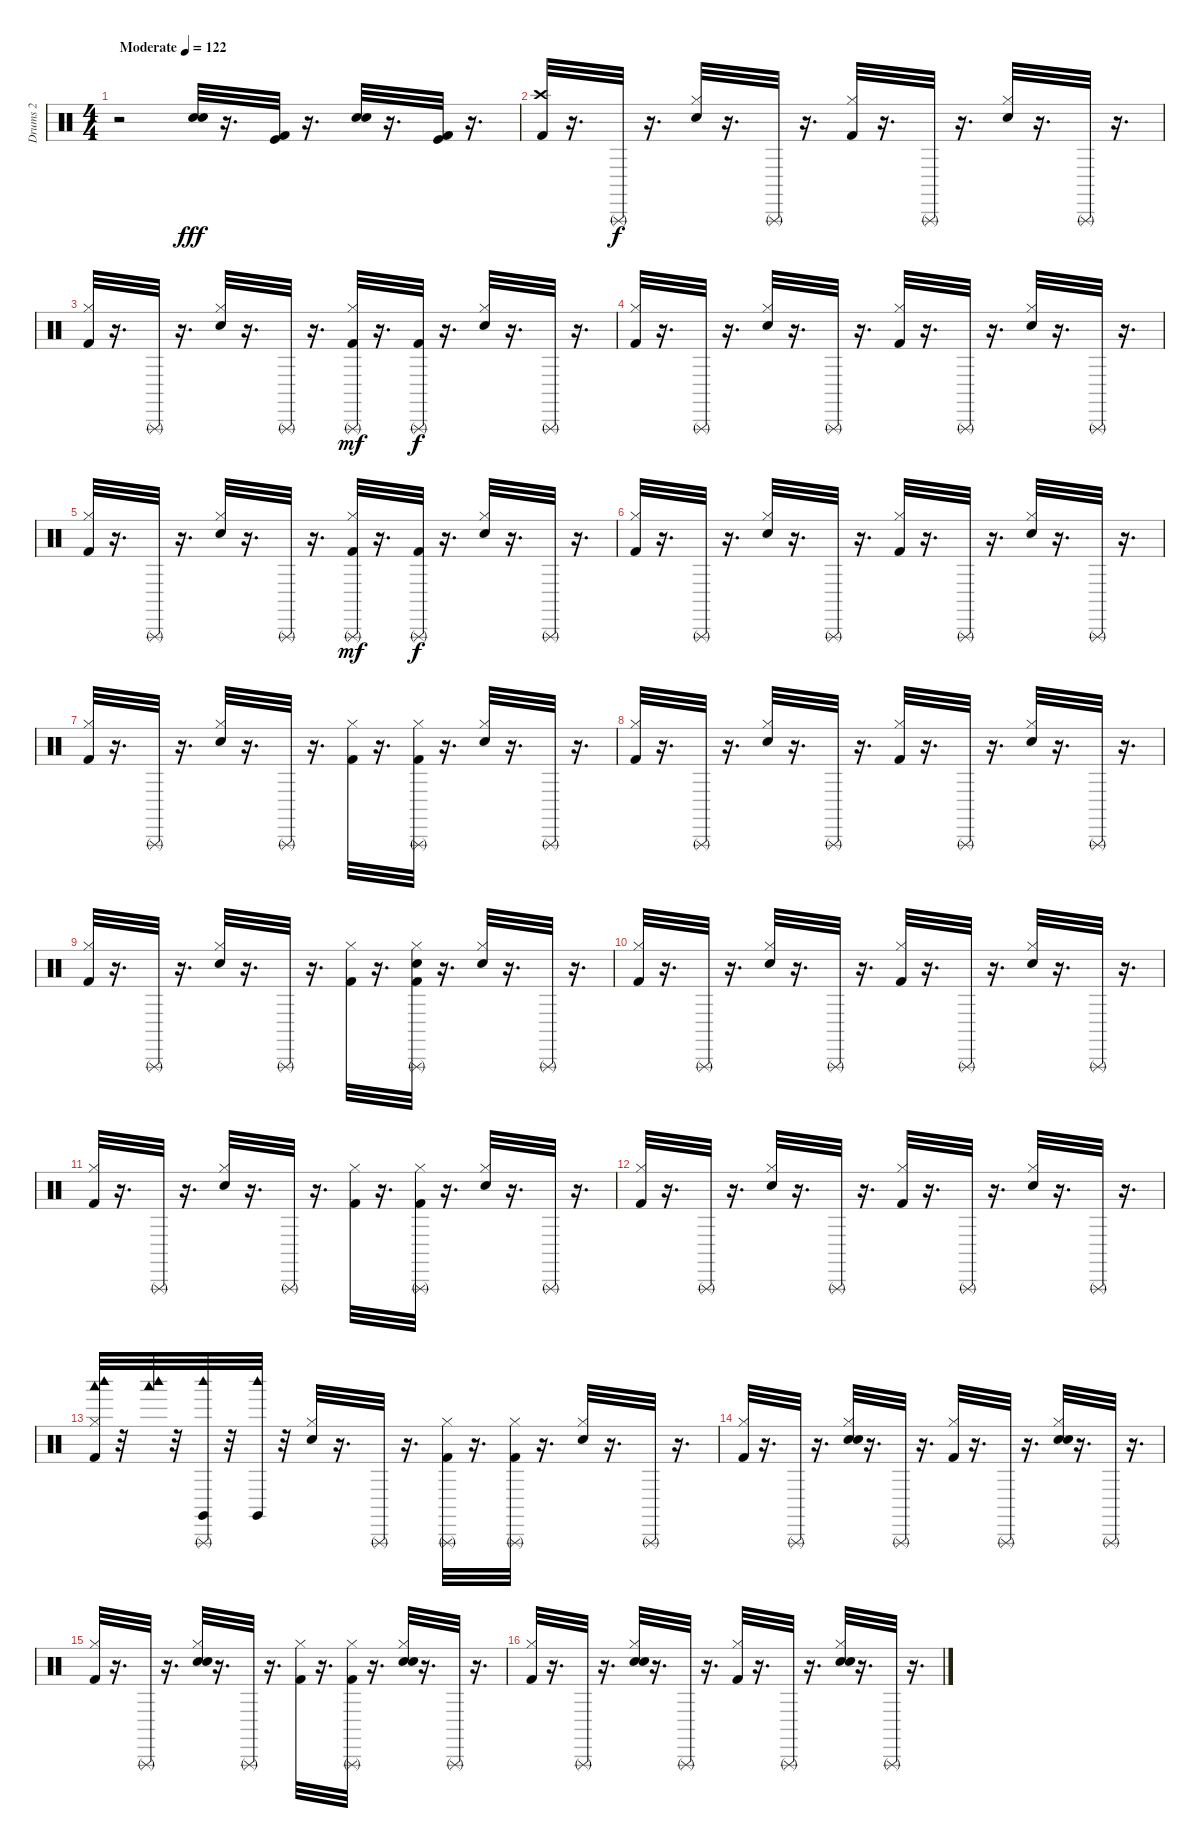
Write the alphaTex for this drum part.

\track ("Drums 2" "Drums 2") {instrument percussion}
\staff {score}
\articulation defaults
\ts (4 4)
\tempo (122 "Moderate")
\clef neutral
\ks c
r.2{dy fff} ("Snare (hit) 2" "Electric Snare (hit)").32 r.16{d} ("Kick (hit)" "Kick (hit) 2").32 r.16{d} ("Snare (hit) 2" "Electric Snare (hit)").32 r.16{d} ("Kick (hit)" "Kick (hit) 2").32 r.16{d} |
("Kick (hit) 2" "Crash high (hit)").32 r.16{d} "Triangle (rnute)".32{dy f} r.16{d} ("Hi-Hat (closed)" "Snare (hit) 2").32 r.16{d} "Triangle (rnute)".32 r.16{d} ("Hi-Hat (closed)" "Kick (hit) 2").32 r.16{d} "Triangle (rnute)".32 r.16{d} ("Hi-Hat (closed)" "Snare (hit) 2").32 r.16{d} "Triangle (rnute)".32 r.16{d} |
("Hi-Hat (closed)" "Kick (hit) 2").32 r.16{d} "Triangle (rnute)".32 r.16{d} ("Hi-Hat (closed)" "Snare (hit) 2").32 r.16{d} "Triangle (rnute)".32 r.16{d} ("Triangle (rnute)" "Hi-Hat (closed)" "Kick (hit) 2").32{dy mf} r.16{d} ("Triangle (rnute)" "Kick (hit) 2").32{dy f} r.16{d} ("Hi-Hat (closed)" "Snare (hit) 2").32 r.16{d} "Triangle (rnute)".32 r.16{d} |
("Hi-Hat (closed)" "Kick (hit) 2").32 r.16{d} "Triangle (rnute)".32 r.16{d} ("Hi-Hat (closed)" "Snare (hit) 2").32 r.16{d} "Triangle (rnute)".32 r.16{d} ("Hi-Hat (closed)" "Kick (hit) 2").32 r.16{d} "Triangle (rnute)".32 r.16{d} ("Hi-Hat (closed)" "Snare (hit) 2").32 r.16{d} "Triangle (rnute)".32 r.16{d} |
("Hi-Hat (closed)" "Kick (hit) 2").32 r.16{d} "Triangle (rnute)".32 r.16{d} ("Hi-Hat (closed)" "Snare (hit) 2").32 r.16{d} "Triangle (rnute)".32 r.16{d} ("Triangle (rnute)" "Hi-Hat (closed)" "Kick (hit) 2").32{dy mf} r.16{d} ("Triangle (rnute)" "Kick (hit) 2").32{dy f} r.16{d} ("Hi-Hat (closed)" "Snare (hit) 2").32 r.16{d} "Triangle (rnute)".32 r.16{d} |
("Hi-Hat (closed)" "Kick (hit) 2").32 r.16{d} "Triangle (rnute)".32 r.16{d} ("Hi-Hat (closed)" "Snare (hit) 2").32 r.16{d} "Triangle (rnute)".32 r.16{d} ("Hi-Hat (closed)" "Kick (hit) 2").32 r.16{d} "Triangle (rnute)".32 r.16{d} ("Hi-Hat (closed)" "Snare (hit) 2").32 r.16{d} "Triangle (rnute)".32 r.16{d} |
("Hi-Hat (closed)" "Kick (hit) 2").32 r.16{d} "Triangle (rnute)".32 r.16{d} ("Hi-Hat (closed)" "Snare (hit) 2").32 r.16{d} "Triangle (rnute)".32 r.16{d} ("Hi-Hat (closed)" "Kick (hit) 2").32 r.16{d} ("Hi-Hat (closed)" "Triangle (rnute)" "Kick (hit) 2").32 r.16{d} ("Hi-Hat (closed)" "Snare (hit) 2").32 r.16{d} "Triangle (rnute)".32 r.16{d} |
("Hi-Hat (closed)" "Kick (hit) 2").32 r.16{d} "Triangle (rnute)".32 r.16{d} ("Hi-Hat (closed)" "Snare (hit) 2").32 r.16{d} "Triangle (rnute)".32 r.16{d} ("Hi-Hat (closed)" "Kick (hit) 2").32 r.16{d} "Triangle (rnute)".32 r.16{d} ("Hi-Hat (closed)" "Snare (hit) 2").32 r.16{d} "Triangle (rnute)".32 r.16{d} |
("Hi-Hat (closed)" "Kick (hit) 2").32 r.16{d} "Triangle (rnute)".32 r.16{d} ("Hi-Hat (closed)" "Snare (hit) 2").32 r.16{d} "Triangle (rnute)".32 r.16{d} ("Hi-Hat (closed)" "Kick (hit) 2").32 r.16{d} ("Hi-Hat (closed)" "Triangle (rnute)" "Snare (hit) 2" "Kick (hit) 2").32 r.16{d} ("Hi-Hat (closed)" "Snare (hit) 2").32 r.16{d} "Triangle (rnute)".32 r.16{d} |
("Hi-Hat (closed)" "Kick (hit) 2").32 r.16{d} "Triangle (rnute)".32 r.16{d} ("Hi-Hat (closed)" "Snare (hit) 2").32 r.16{d} "Triangle (rnute)".32 r.16{d} ("Hi-Hat (closed)" "Kick (hit) 2").32 r.16{d} "Triangle (rnute)".32 r.16{d} ("Hi-Hat (closed)" "Snare (hit) 2").32 r.16{d} "Triangle (rnute)".32 r.16{d} |
("Hi-Hat (closed)" "Kick (hit) 2").32 r.16{d} "Triangle (rnute)".32 r.16{d} ("Hi-Hat (closed)" "Snare (hit) 2").32 r.16{d} "Triangle (rnute)".32 r.16{d} ("Hi-Hat (closed)" "Kick (hit) 2").32 r.16{d} ("Hi-Hat (closed)" "Triangle (rnute)" "Kick (hit) 2").32 r.16{d} ("Hi-Hat (closed)" "Snare (hit) 2").32 r.16{d} "Triangle (rnute)".32 r.16{d} |
("Hi-Hat (closed)" "Kick (hit) 2").32 r.16{d} "Triangle (rnute)".32 r.16{d} ("Hi-Hat (closed)" "Snare (hit) 2").32 r.16{d} "Triangle (rnute)".32 r.16{d} ("Hi-Hat (closed)" "Kick (hit) 2").32 r.16{d} "Triangle (rnute)".32 r.16{d} ("Hi-Hat (closed)" "Snare (hit) 2").32 r.16{d} "Triangle (rnute)".32 r.16{d} |
("Hi-Hat (closed)" "Woodblock high (hit)" "Woodblock low (hit)" "Kick (hit) 2").32 r.32 ("Woodblock high (hit)" "Woodblock low (hit)").32 r.32 ("Triangle (rnute)" "Claves (hit)" "Woodblock high (hit)").32 r.32 ("Claves (hit)" "Woodblock high (hit)").32 r.32 ("Hi-Hat (closed)" "Snare (hit) 2").32 r.16{d} "Triangle (rnute)".32 r.16{d} ("Hi-Hat (closed)" "Triangle (rnute)" "Kick (hit) 2").32 r.16{d} ("Hi-Hat (closed)" "Triangle (rnute)" "Kick (hit) 2").32 r.16{d} ("Hi-Hat (closed)" "Snare (hit) 2").32 r.16{d} "Triangle (rnute)".32 r.16{d} |
("Hi-Hat (closed)" "Kick (hit) 2").32 r.16{d} "Triangle (rnute)".32 r.16{d} ("Hi-Hat (closed)" "Snare (hit) 2" "Electric Snare (hit)").32 r.16{d} "Triangle (rnute)".32 r.16{d} ("Hi-Hat (closed)" "Kick (hit) 2").32 r.16{d} "Triangle (rnute)".32 r.16{d} ("Hi-Hat (closed)" "Snare (hit) 2" "Electric Snare (hit)").32 r.16{d} "Triangle (rnute)".32 r.16{d} |
("Hi-Hat (closed)" "Kick (hit) 2").32 r.16{d} "Triangle (rnute)".32 r.16{d} ("Hi-Hat (closed)" "Snare (hit) 2" "Electric Snare (hit)").32 r.16{d} "Triangle (rnute)".32 r.16{d} ("Hi-Hat (closed)" "Kick (hit) 2").32 r.16{d} ("Triangle (rnute)" "Hi-Hat (closed)" "Kick (hit) 2").32 r.16{d} ("Hi-Hat (closed)" "Snare (hit) 2" "Electric Snare (hit)").32 r.16{d} "Triangle (rnute)".32 r.16{d} |
("Hi-Hat (closed)" "Kick (hit) 2").32 r.16{d} "Triangle (rnute)".32 r.16{d} ("Hi-Hat (closed)" "Snare (hit) 2" "Electric Snare (hit)").32 r.16{d} "Triangle (rnute)".32 r.16{d} ("Hi-Hat (closed)" "Kick (hit) 2").32 r.16{d} "Triangle (rnute)".32 r.16{d} ("Hi-Hat (closed)" "Snare (hit) 2" "Electric Snare (hit)").32 r.16{d} "Triangle (rnute)".32 r.16{d}
